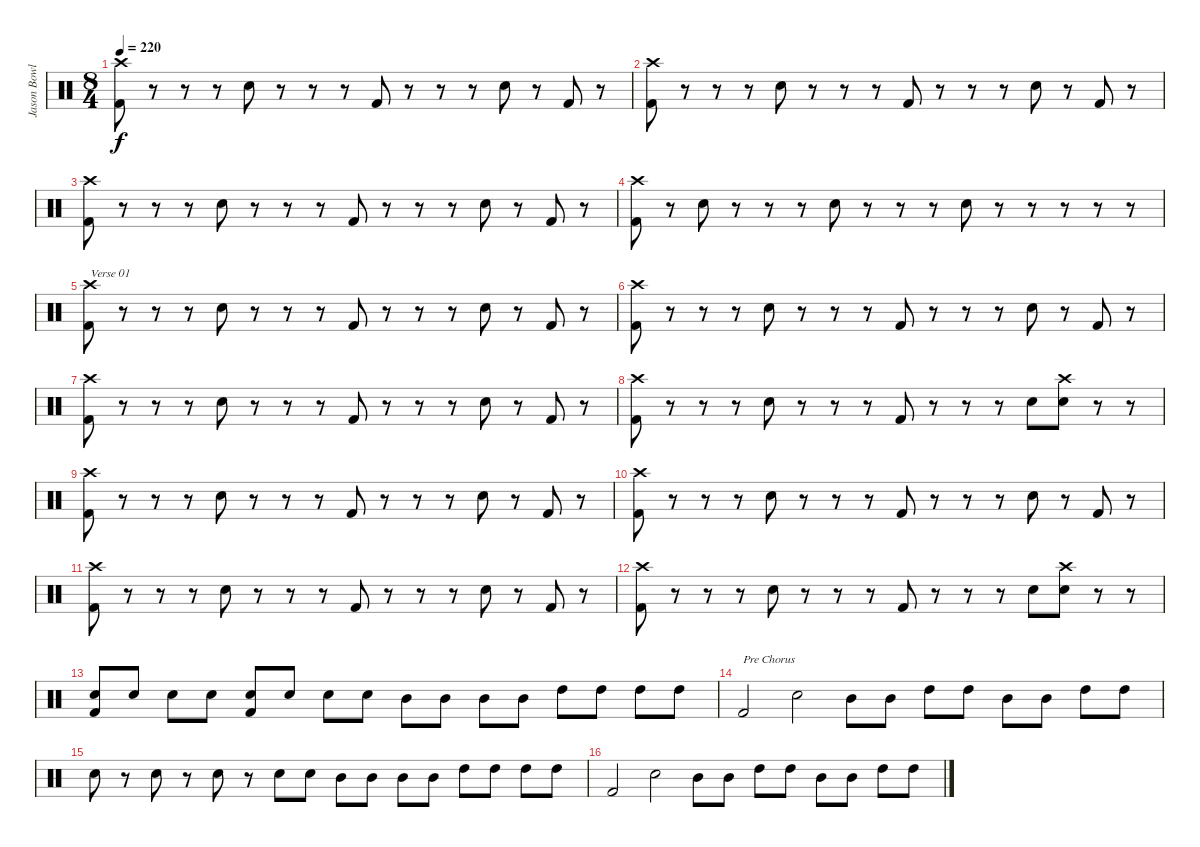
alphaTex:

\track ("Jason Bowld" "Jason Bowl") {instrument percussion}
\staff {score}
\articulation defaults
\ts (8 4)
\tempo 220
\clef neutral
\ks c
("Kick (hit) 2" "Crash high (hit)").8{dy f} r.8 r.8 r.8 "Snare (hit) 2".8 r.8 r.8 r.8 "Kick (hit) 2".8 r.8 r.8 r.8 "Snare (hit) 2".8 r.8 "Kick (hit) 2".8 r.8 |
("Kick (hit) 2" "Crash high (hit)").8 r.8 r.8 r.8 "Snare (hit) 2".8 r.8 r.8 r.8 "Kick (hit) 2".8 r.8 r.8 r.8 "Snare (hit) 2".8 r.8 "Kick (hit) 2".8 r.8 |
("Kick (hit) 2" "Crash high (hit)").8 r.8 r.8 r.8 "Snare (hit) 2".8 r.8 r.8 r.8 "Kick (hit) 2".8 r.8 r.8 r.8 "Snare (hit) 2".8 r.8 "Kick (hit) 2".8 r.8 |
("Kick (hit) 2" "Crash high (hit)").8 r.8 "Snare (hit) 2".8 r.8 r.8 r.8 "Snare (hit) 2".8 r.8 r.8 r.8 "Snare (hit) 2".8 r.8 r.8 r.8 r.8 r.8 |
("Kick (hit) 2" "Crash high (hit)").8{txt "Verse 01"} r.8 r.8 r.8 "Snare (hit) 2".8 r.8 r.8 r.8 "Kick (hit) 2".8 r.8 r.8 r.8 "Snare (hit) 2".8 r.8 "Kick (hit) 2".8 r.8 |
("Kick (hit) 2" "Crash high (hit)").8 r.8 r.8 r.8 "Snare (hit) 2".8 r.8 r.8 r.8 "Kick (hit) 2".8 r.8 r.8 r.8 "Snare (hit) 2".8 r.8 "Kick (hit) 2".8 r.8 |
("Kick (hit) 2" "Crash high (hit)").8 r.8 r.8 r.8 "Snare (hit) 2".8 r.8 r.8 r.8 "Kick (hit) 2".8 r.8 r.8 r.8 "Snare (hit) 2".8 r.8 "Kick (hit) 2".8 r.8 |
("Kick (hit) 2" "Crash high (hit)").8 r.8 r.8 r.8 "Snare (hit) 2".8 r.8 r.8 r.8 "Kick (hit) 2".8 r.8 r.8 r.8 "Snare (hit) 2".8 ("Snare (hit) 2" "Crash high (hit)").8 r.8 r.8 |
("Kick (hit) 2" "Crash high (hit)").8 r.8 r.8 r.8 "Snare (hit) 2".8 r.8 r.8 r.8 "Kick (hit) 2".8 r.8 r.8 r.8 "Snare (hit) 2".8 r.8 "Kick (hit) 2".8 r.8 |
("Kick (hit) 2" "Crash high (hit)").8 r.8 r.8 r.8 "Snare (hit) 2".8 r.8 r.8 r.8 "Kick (hit) 2".8 r.8 r.8 r.8 "Snare (hit) 2".8 r.8 "Kick (hit) 2".8 r.8 |
("Kick (hit) 2" "Crash high (hit)").8 r.8 r.8 r.8 "Snare (hit) 2".8 r.8 r.8 r.8 "Kick (hit) 2".8 r.8 r.8 r.8 "Snare (hit) 2".8 r.8 "Kick (hit) 2".8 r.8 |
("Kick (hit) 2" "Crash high (hit)").8 r.8 r.8 r.8 "Snare (hit) 2".8 r.8 r.8 r.8 "Kick (hit) 2".8 r.8 r.8 r.8 "Snare (hit) 2".8 ("Snare (hit) 2" "Crash high (hit)").8 r.8 r.8 |
("Snare (hit) 2" "Kick (hit) 2").8 "Snare (hit) 2".8 "Snare (hit) 2".8 "Snare (hit) 2".8 ("Snare (hit) 2" "Kick (hit) 2").8 "Snare (hit) 2".8 "Snare (hit) 2".8 "Snare (hit) 2".8 "Mid Tom (hit)".8 "Mid Tom (hit)".8 "Mid Tom (hit)".8 "Mid Tom (hit)".8 "High Tom (hit)".8 "High Tom (hit)".8 "High Tom (hit)".8 "High Tom (hit)".8 |
"Kick (hit) 2".2{txt "Pre Chorus"} "Snare (hit) 2".2 "Mid Tom (hit)".8 "Mid Tom (hit)".8 "High Tom (hit)".8 "High Tom (hit)".8 "Mid Tom (hit)".8 "Mid Tom (hit)".8 "High Tom (hit)".8 "High Tom (hit)".8 |
"Snare (hit) 2".8 r.8 "Snare (hit) 2".8 r.8 "Snare (hit) 2".8 r.8 "Snare (hit) 2".8 "Snare (hit) 2".8 "Mid Tom (hit)".8 "Mid Tom (hit)".8 "Mid Tom (hit)".8 "Mid Tom (hit)".8 "High Tom (hit)".8 "High Tom (hit)".8 "High Tom (hit)".8 "High Tom (hit)".8 |
"Kick (hit) 2".2 "Snare (hit) 2".2 "Mid Tom (hit)".8 "Mid Tom (hit)".8 "High Tom (hit)".8 "High Tom (hit)".8 "Mid Tom (hit)".8 "Mid Tom (hit)".8 "High Tom (hit)".8 "High Tom (hit)".8
